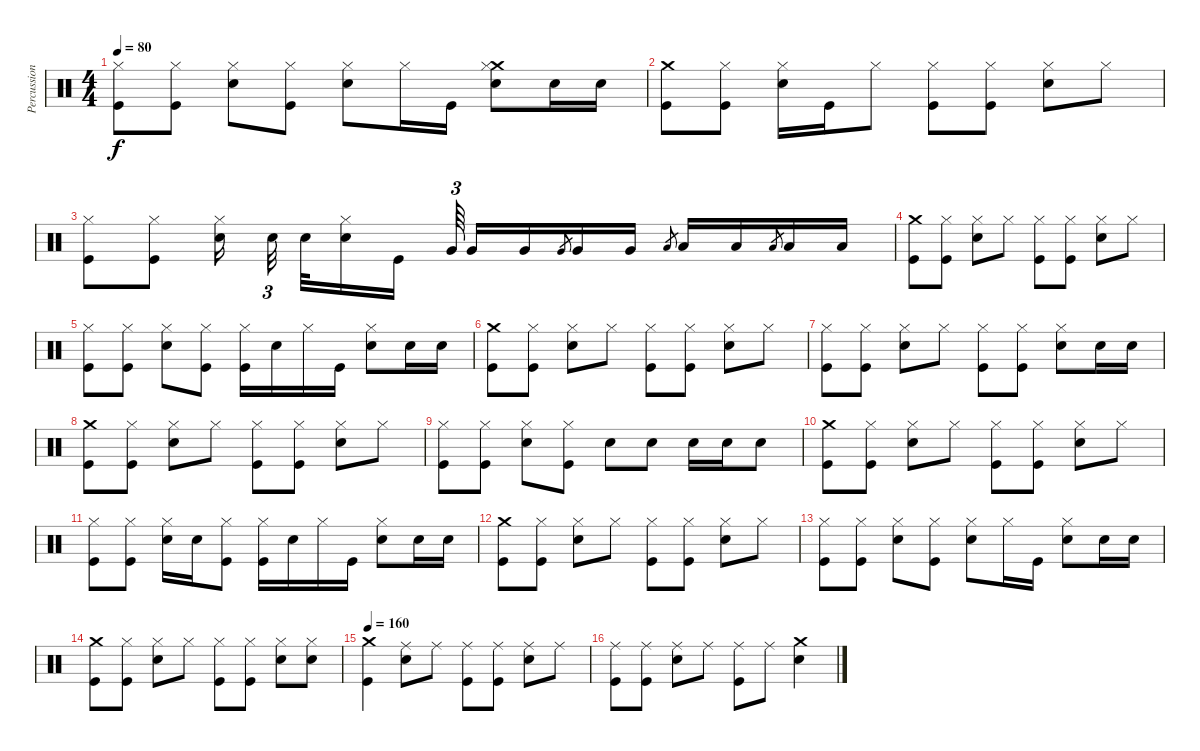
\track ("Percussion" "Percussion") {instrument percussion}
\staff {score}
\articulation defaults
\ts (4 4)
\tempo 80
\clef neutral
\ks c
("Hi-Hat (closed)" "Kick (hit)").8{dy f} ("Hi-Hat (closed)" "Kick (hit)").8 ("Snare (hit) 2" "Hi-Hat (closed)").8 ("Hi-Hat (closed)" "Kick (hit)").8 ("Snare (hit) 2" "Hi-Hat (closed)").8 "Hi-Hat (closed)".16 "Kick (hit)".16 ("Snare (hit) 2" "Crash medium (hit)" "Hi-Hat (closed)").8 "Snare (hit) 2".16 "Snare (hit) 2".16 |
("Crash medium (hit)" "Kick (hit)").8 ("Kick (hit)" "Hi-Hat (closed)").8 ("Snare (hit) 2" "Hi-Hat (closed)").16 "Kick (hit)".16 "Hi-Hat (closed)".8 ("Hi-Hat (closed)" "Kick (hit)").8 ("Hi-Hat (closed)" "Kick (hit)").8 ("Snare (hit) 2" "Hi-Hat (closed)").8 "Hi-Hat (closed)".8 |
("Kick (hit)" "Hi-Hat (closed)").8 ("Kick (hit)" "Hi-Hat (closed)").8 ("Snare (hit) 2" "Hi-Hat (closed)").16 "Snare (hit) 2".32{tu (3 2)} "Snare (hit) 2".32 ("Snare (hit) 2" "Hi-Hat (closed)").16 "Kick (hit)".16 "Very Low Tom (hit)".64{tu (3 2)} "Very Low Tom (hit)".16 "Very Low Tom (hit)".16 "Very Low Tom (hit)".8{gr} "Very Low Tom (hit)".16 "Very Low Tom (hit)".16 "Low Floor Tom (hit)".8{gr} "Low Floor Tom (hit)".16 "Low Floor Tom (hit)".16 "Low Floor Tom (hit)".8{gr} "Low Floor Tom (hit)".16 "Low Floor Tom (hit)".16 |
("Kick (hit)" "Crash medium (hit)").8 ("Kick (hit)" "Hi-Hat (closed)").8 ("Snare (hit) 2" "Hi-Hat (closed)").8 "Hi-Hat (closed)".8 ("Hi-Hat (closed)" "Kick (hit)").8 ("Hi-Hat (closed)" "Kick (hit)").8 ("Snare (hit) 2" "Hi-Hat (closed)").8 "Hi-Hat (closed)".8 |
("Hi-Hat (closed)" "Kick (hit)").8 ("Hi-Hat (closed)" "Kick (hit)").8 ("Snare (hit) 2" "Hi-Hat (closed)").8 ("Hi-Hat (closed)" "Kick (hit)").8 ("Kick (hit)" "Hi-Hat (closed)").16 "Snare (hit) 2".16 "Hi-Hat (closed)".16 "Kick (hit)".16 ("Snare (hit) 2" "Hi-Hat (closed)").8 "Snare (hit) 2".16 "Snare (hit) 2".16 |
("Kick (hit)" "Crash medium (hit)").8 ("Kick (hit)" "Hi-Hat (closed)").8 ("Snare (hit) 2" "Hi-Hat (closed)").8 "Hi-Hat (closed)".8 ("Hi-Hat (closed)" "Kick (hit)").8 ("Hi-Hat (closed)" "Kick (hit)").8 ("Snare (hit) 2" "Hi-Hat (closed)").8 "Hi-Hat (closed)".8 |
("Hi-Hat (closed)" "Kick (hit)").8 ("Hi-Hat (closed)" "Kick (hit)").8 ("Snare (hit) 2" "Hi-Hat (closed)").8 "Hi-Hat (closed)".8 ("Hi-Hat (closed)" "Kick (hit)").8 ("Hi-Hat (closed)" "Kick (hit)").8 ("Snare (hit) 2" "Hi-Hat (closed)").8 "Snare (hit) 2".16 "Snare (hit) 2".16 |
("Kick (hit)" "Crash medium (hit)").8 ("Kick (hit)" "Hi-Hat (closed)").8 ("Snare (hit) 2" "Hi-Hat (closed)").8 "Hi-Hat (closed)".8 ("Hi-Hat (closed)" "Kick (hit)").8 ("Hi-Hat (closed)" "Kick (hit)").8 ("Snare (hit) 2" "Hi-Hat (closed)").8 "Hi-Hat (closed)".8 |
("Hi-Hat (closed)" "Kick (hit)").8 ("Hi-Hat (closed)" "Kick (hit)").8 ("Snare (hit) 2" "Hi-Hat (closed)").8 ("Hi-Hat (closed)" "Kick (hit)").8 "Snare (hit) 2".8 "Snare (hit) 2".8 "Snare (hit) 2".16 "Snare (hit) 2".16 "Snare (hit) 2".8 |
("Kick (hit)" "Crash medium (hit)").8 ("Kick (hit)" "Hi-Hat (closed)").8 ("Snare (hit) 2" "Hi-Hat (closed)").8 "Hi-Hat (closed)".8 ("Hi-Hat (closed)" "Kick (hit)").8 ("Hi-Hat (closed)" "Kick (hit)").8 ("Snare (hit) 2" "Hi-Hat (closed)").8 "Hi-Hat (closed)".8 |
("Kick (hit)" "Hi-Hat (closed)").8 ("Kick (hit)" "Hi-Hat (closed)").8 ("Snare (hit) 2" "Hi-Hat (closed)").16 "Snare (hit) 2".16 ("Kick (hit)" "Hi-Hat (closed)").8 ("Kick (hit)" "Hi-Hat (closed)").16 "Snare (hit) 2".16 "Hi-Hat (closed)".16 "Kick (hit)".16 ("Snare (hit) 2" "Hi-Hat (closed)").8 "Snare (hit) 2".16 "Snare (hit) 2".16 |
("Kick (hit)" "Crash medium (hit)").8 ("Kick (hit)" "Hi-Hat (closed)").8 ("Snare (hit) 2" "Hi-Hat (closed)").8 "Hi-Hat (closed)".8 ("Hi-Hat (closed)" "Kick (hit)").8 ("Hi-Hat (closed)" "Kick (hit)").8 ("Snare (hit) 2" "Hi-Hat (closed)").8 "Hi-Hat (closed)".8 |
("Hi-Hat (closed)" "Kick (hit)").8 ("Hi-Hat (closed)" "Kick (hit)").8 ("Snare (hit) 2" "Hi-Hat (closed)").8 ("Hi-Hat (closed)" "Kick (hit)").8 ("Snare (hit) 2" "Hi-Hat (closed)").8 "Hi-Hat (closed)".16 "Kick (hit)".16 ("Snare (hit) 2" "Hi-Hat (closed)").8 "Snare (hit) 2".16 "Snare (hit) 2".16 |
("Kick (hit)" "Crash medium (hit)").8 ("Kick (hit)" "Hi-Hat (closed)").8 ("Snare (hit) 2" "Hi-Hat (closed)").8 "Hi-Hat (closed)".8 ("Hi-Hat (closed)" "Kick (hit)").8 ("Hi-Hat (closed)" "Kick (hit)").8 ("Snare (hit) 2" "Hi-Hat (closed)").8 ("Snare (hit) 2" "Hi-Hat (closed)").8 |
\tempo 160
("Crash medium (hit)" "Kick (hit)").4 ("Snare (hit) 2" "Ride (middle)").8 "Ride (middle)".8 ("Kick (hit)" "Ride (middle)").8 ("Kick (hit)" "Ride (middle)").8 ("Snare (hit) 2" "Ride (middle)").8 "Ride (middle)".8 |
("Kick (hit)" "Ride (middle)").8 ("Kick (hit)" "Ride (middle)").8 ("Snare (hit) 2" "Ride (middle)").8 "Ride (middle)".8 ("Kick (hit)" "Ride (middle)").8 "Ride (middle)".8 ("Crash medium (hit)" "Snare (hit) 2").4
